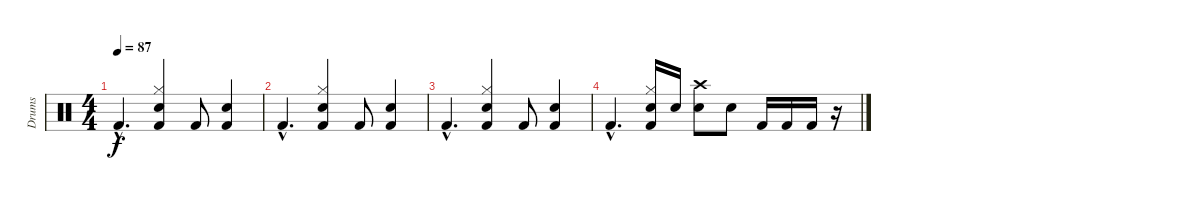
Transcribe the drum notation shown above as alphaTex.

\track ("Drums" "Drums") {instrument percussion}
\staff {score}
\articulation defaults
\ts (4 4)
\tempo 87
\clef neutral
\ks c "Kick (hit) 2"{hac}.4{d dy f}
("Hi-Hat (closed)" "Electric Snare (hit)" "Kick (hit) 2").4 "Kick (hit) 2".8 ("Electric Snare (hit)" "Kick (hit) 2").4 |
"Kick (hit) 2"{hac}.4{d} ("Hi-Hat (closed)" "Electric Snare (hit)" "Kick (hit) 2").4 "Kick (hit) 2".8 ("Electric Snare (hit)" "Kick (hit) 2").4 |
"Kick (hit) 2"{hac}.4{d} ("Hi-Hat (closed)" "Electric Snare (hit)" "Kick (hit) 2").4 "Kick (hit) 2".8 ("Electric Snare (hit)" "Kick (hit) 2").4 |
"Kick (hit) 2"{hac}.4{d} ("Hi-Hat (closed)" "Electric Snare (hit)" "Kick (hit) 2").16 "Electric Snare (hit)".16 ("Crash high (hit)" "Electric Snare (hit)").8 "Snare (hit) 2".8 "Kick (hit) 2".16 "Kick (hit) 2".16 "Kick (hit) 2".16 r.16
